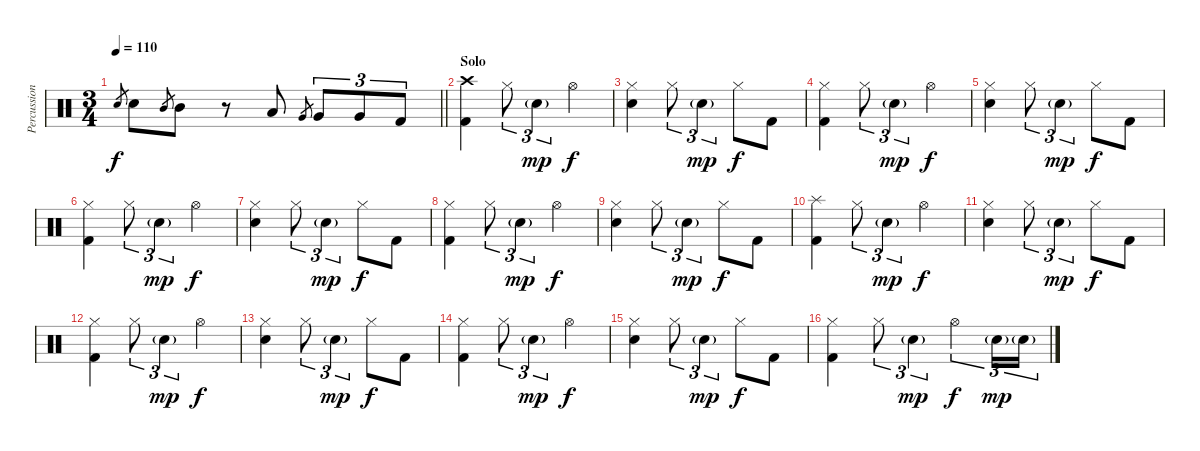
\track ("Percussion" "Percussion") {instrument percussion}
\staff {score}
\articulation defaults
\ts (3 4)
\tempo 110
\clef neutral
\barLineRight lightlight
\ks c "Snare (hit) 2".8{gr dy f} "Snare (hit) 2".8 "Mid Tom (hit)".8{gr} "Mid Tom (hit)".8
r.8 "Low Tom (hit)".8 "Very Low Tom (hit)".8{gr} "Very Low Tom (hit)".8{tu (3 2)} "Very Low Tom (hit)".8{tu (3 2)} "Kick (hit) 2".8{tu (3 2)} |
\section ("" "Solo")
("Crash high (hit)" "Kick (hit) 2").4 "Hi-Hat (closed)".8{tu (3 2)} "Snare (hit) 2"{g}.4{tu (3 2) dy mp} "Hi-Hat (open)".4{dy f} |
("Hi-Hat (closed)" "Snare (hit) 2").4 "Hi-Hat (closed)".8{tu (3 2)} "Snare (hit) 2"{g}.4{tu (3 2) dy mp} "Hi-Hat (closed)".8{dy f} "Kick (hit) 2".8 |
("Hi-Hat (closed)" "Kick (hit) 2").4 "Hi-Hat (closed)".8{tu (3 2)} "Snare (hit) 2"{g}.4{tu (3 2) dy mp} "Hi-Hat (open)".4{dy f} |
("Hi-Hat (closed)" "Snare (hit) 2").4 "Hi-Hat (closed)".8{tu (3 2)} "Snare (hit) 2"{g}.4{tu (3 2) dy mp} "Hi-Hat (closed)".8{dy f} "Kick (hit) 2".8 |
("Hi-Hat (closed)" "Kick (hit) 2").4 "Hi-Hat (closed)".8{tu (3 2)} "Snare (hit) 2"{g}.4{tu (3 2) dy mp} "Hi-Hat (open)".4{dy f} |
("Hi-Hat (closed)" "Snare (hit) 2").4 "Hi-Hat (closed)".8{tu (3 2)} "Snare (hit) 2"{g}.4{tu (3 2) dy mp} "Hi-Hat (closed)".8{dy f} "Kick (hit) 2".8 |
("Hi-Hat (closed)" "Kick (hit) 2").4 "Hi-Hat (closed)".8{tu (3 2)} "Snare (hit) 2"{g}.4{tu (3 2) dy mp} "Hi-Hat (open)".4{dy f} |
("Hi-Hat (closed)" "Snare (hit) 2").4 "Hi-Hat (closed)".8{tu (3 2)} "Snare (hit) 2"{g}.4{tu (3 2) dy mp} "Hi-Hat (closed)".8{dy f} "Kick (hit) 2".8 |
("Splash (hit)" "Kick (hit) 2").4 "Hi-Hat (closed)".8{tu (3 2)} "Snare (hit) 2"{g}.4{tu (3 2) dy mp} "Hi-Hat (open)".4{dy f} |
("Hi-Hat (closed)" "Snare (hit) 2").4 "Hi-Hat (closed)".8{tu (3 2)} "Snare (hit) 2"{g}.4{tu (3 2) dy mp} "Hi-Hat (closed)".8{dy f} "Kick (hit) 2".8 |
("Hi-Hat (closed)" "Kick (hit) 2").4 "Hi-Hat (closed)".8{tu (3 2)} "Snare (hit) 2"{g}.4{tu (3 2) dy mp} "Hi-Hat (open)".4{dy f} |
("Hi-Hat (closed)" "Snare (hit) 2").4 "Hi-Hat (closed)".8{tu (3 2)} "Snare (hit) 2"{g}.4{tu (3 2) dy mp} "Hi-Hat (closed)".8{dy f} "Kick (hit) 2".8 |
("Hi-Hat (closed)" "Kick (hit) 2").4 "Hi-Hat (closed)".8{tu (3 2)} "Snare (hit) 2"{g}.4{tu (3 2) dy mp} "Hi-Hat (open)".4{dy f} |
("Hi-Hat (closed)" "Snare (hit) 2").4 "Hi-Hat (closed)".8{tu (3 2)} "Snare (hit) 2"{g}.4{tu (3 2) dy mp} "Hi-Hat (closed)".8{dy f} "Kick (hit) 2".8 |
("Hi-Hat (closed)" "Kick (hit) 2").4 "Hi-Hat (closed)".8{tu (3 2)} "Snare (hit) 2"{g}.4{tu (3 2) dy mp} "Hi-Hat (open)".4{tu (3 2) dy f} "Snare (hit) 2"{g}.16{tu (3 2) dy mp} "Snare (hit) 2"{g}.16{tu (3 2)}
